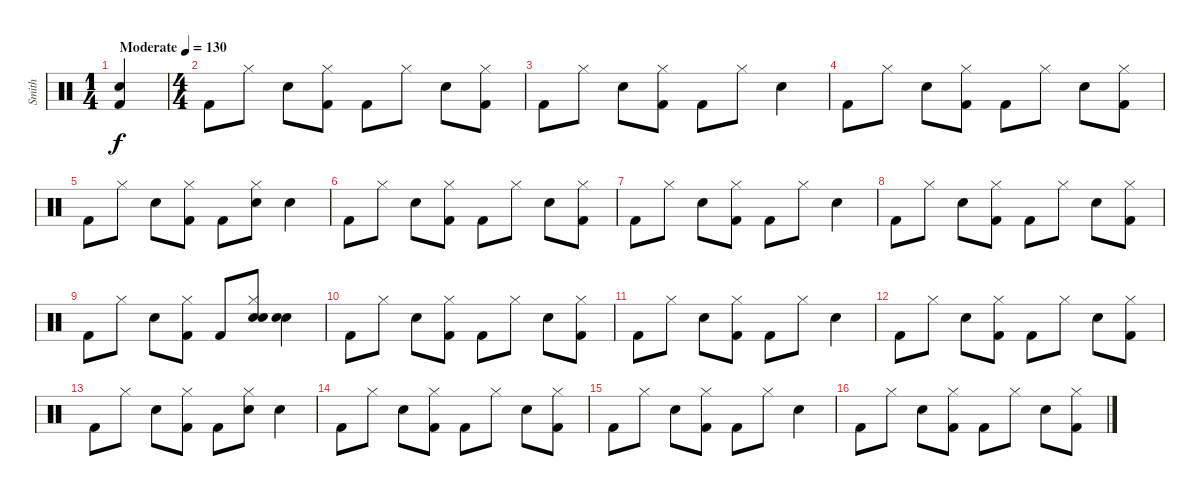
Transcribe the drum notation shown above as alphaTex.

\track ("Smith" "Smith") {instrument percussion}
\staff {score}
\articulation defaults
\ts (1 4)
\tempo (130 "Moderate")
\clef neutral
\ks c
("Snare (hit) 2" "Kick (hit) 2").4{dy f} |
\ts (4 4)
"Kick (hit) 2".8 "Hi-Hat (closed)".8 "Snare (hit) 2".8 ("Hi-Hat (closed)" "Kick (hit) 2").8 "Kick (hit) 2".8 "Hi-Hat (closed)".8 "Snare (hit) 2".8 ("Hi-Hat (closed)" "Kick (hit) 2").8 |
"Kick (hit) 2".8 "Hi-Hat (closed)".8 "Snare (hit) 2".8 ("Hi-Hat (closed)" "Kick (hit) 2").8 "Kick (hit) 2".8 "Hi-Hat (closed)".8 "Snare (hit) 2".4 |
"Kick (hit) 2".8 "Hi-Hat (closed)".8 "Snare (hit) 2".8 ("Hi-Hat (closed)" "Kick (hit) 2").8 "Kick (hit) 2".8 "Hi-Hat (closed)".8 "Snare (hit) 2".8 ("Hi-Hat (closed)" "Kick (hit) 2").8 |
"Kick (hit) 2".8 "Hi-Hat (closed)".8 "Snare (hit) 2".8 ("Hi-Hat (closed)" "Kick (hit) 2").8 "Kick (hit) 2".8 ("Hi-Hat (closed)" "Snare (hit) 2").8 "Snare (hit) 2".4 |
"Kick (hit) 2".8 "Hi-Hat (closed)".8 "Snare (hit) 2".8 ("Hi-Hat (closed)" "Kick (hit) 2").8 "Kick (hit) 2".8 "Hi-Hat (closed)".8 "Snare (hit) 2".8 ("Hi-Hat (closed)" "Kick (hit) 2").8 |
"Kick (hit) 2".8 "Hi-Hat (closed)".8 "Snare (hit) 2".8 ("Hi-Hat (closed)" "Kick (hit) 2").8 "Kick (hit) 2".8 "Hi-Hat (closed)".8 "Snare (hit) 2".4 |
"Kick (hit) 2".8 "Hi-Hat (closed)".8 "Snare (hit) 2".8 ("Hi-Hat (closed)" "Kick (hit) 2").8 "Kick (hit) 2".8 "Hi-Hat (closed)".8 "Snare (hit) 2".8 ("Hi-Hat (closed)" "Kick (hit) 2").8 |
"Kick (hit) 2".8 "Hi-Hat (closed)".8 "Snare (hit) 2".8 ("Hi-Hat (closed)" "Kick (hit) 2").8 "Kick (hit) 2".8 ("Hand Clap (hit)" "Hi-Hat (closed)" "Snare (hit) 2").8 ("Hand Clap (hit)" "Snare (hit) 2").4 |
"Kick (hit) 2".8 "Hi-Hat (closed)".8 "Snare (hit) 2".8 ("Hi-Hat (closed)" "Kick (hit) 2").8 "Kick (hit) 2".8 "Hi-Hat (closed)".8 "Snare (hit) 2".8 ("Hi-Hat (closed)" "Kick (hit) 2").8 |
"Kick (hit) 2".8 "Hi-Hat (closed)".8 "Snare (hit) 2".8 ("Hi-Hat (closed)" "Kick (hit) 2").8 "Kick (hit) 2".8 "Hi-Hat (closed)".8 "Snare (hit) 2".4 |
"Kick (hit) 2".8 "Hi-Hat (closed)".8 "Snare (hit) 2".8 ("Hi-Hat (closed)" "Kick (hit) 2").8 "Kick (hit) 2".8 "Hi-Hat (closed)".8 "Snare (hit) 2".8 ("Hi-Hat (closed)" "Kick (hit) 2").8 |
"Kick (hit) 2".8 "Hi-Hat (closed)".8 "Snare (hit) 2".8 ("Hi-Hat (closed)" "Kick (hit) 2").8 "Kick (hit) 2".8 ("Hi-Hat (closed)" "Snare (hit) 2").8 "Snare (hit) 2".4 |
"Kick (hit) 2".8 "Hi-Hat (closed)".8 "Snare (hit) 2".8 ("Hi-Hat (closed)" "Kick (hit) 2").8 "Kick (hit) 2".8 "Hi-Hat (closed)".8 "Snare (hit) 2".8 ("Hi-Hat (closed)" "Kick (hit) 2").8 |
"Kick (hit) 2".8 "Hi-Hat (closed)".8 "Snare (hit) 2".8 ("Hi-Hat (closed)" "Kick (hit) 2").8 "Kick (hit) 2".8 "Hi-Hat (closed)".8 "Snare (hit) 2".4 |
"Kick (hit) 2".8 "Hi-Hat (closed)".8 "Snare (hit) 2".8 ("Hi-Hat (closed)" "Kick (hit) 2").8 "Kick (hit) 2".8 "Hi-Hat (closed)".8 "Snare (hit) 2".8 ("Hi-Hat (closed)" "Kick (hit) 2").8
